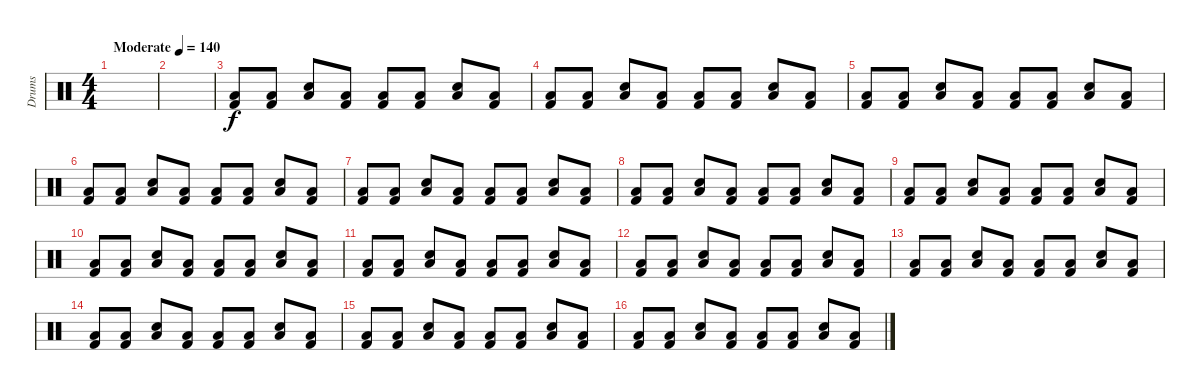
\track ("Drums" "Drums") {instrument percussion}
\staff {score}
\articulation defaults
\ts (4 4)
\tempo (140 "Moderate")
\clef neutral
\ks c
|
|
("Low Floor Tom (hit)" "Kick (hit) 2").8 ("Low Floor Tom (hit)" "Kick (hit) 2").8 ("Low Floor Tom (hit)" "Snare (hit) 2").8 ("Low Floor Tom (hit)" "Kick (hit) 2").8 ("Low Floor Tom (hit)" "Kick (hit) 2").8 ("Low Floor Tom (hit)" "Kick (hit) 2").8 ("Low Floor Tom (hit)" "Snare (hit) 2").8 ("Low Floor Tom (hit)" "Kick (hit) 2").8 |
("Low Floor Tom (hit)" "Kick (hit) 2").8 ("Low Floor Tom (hit)" "Kick (hit) 2").8 ("Low Floor Tom (hit)" "Snare (hit) 2").8 ("Low Floor Tom (hit)" "Kick (hit) 2").8 ("Low Floor Tom (hit)" "Kick (hit) 2").8 ("Low Floor Tom (hit)" "Kick (hit) 2").8 ("Low Floor Tom (hit)" "Snare (hit) 2").8 ("Low Floor Tom (hit)" "Kick (hit) 2").8 |
("Low Floor Tom (hit)" "Kick (hit) 2").8 ("Low Floor Tom (hit)" "Kick (hit) 2").8 ("Low Floor Tom (hit)" "Snare (hit) 2").8 ("Low Floor Tom (hit)" "Kick (hit) 2").8 ("Low Floor Tom (hit)" "Kick (hit) 2").8 ("Low Floor Tom (hit)" "Kick (hit) 2").8 ("Low Floor Tom (hit)" "Snare (hit) 2").8 ("Low Floor Tom (hit)" "Kick (hit) 2").8 |
("Low Floor Tom (hit)" "Kick (hit) 2").8 ("Low Floor Tom (hit)" "Kick (hit) 2").8 ("Low Floor Tom (hit)" "Snare (hit) 2").8 ("Low Floor Tom (hit)" "Kick (hit) 2").8 ("Low Floor Tom (hit)" "Kick (hit) 2").8 ("Low Floor Tom (hit)" "Kick (hit) 2").8 ("Low Floor Tom (hit)" "Snare (hit) 2").8 ("Low Floor Tom (hit)" "Kick (hit) 2").8 |
("Low Floor Tom (hit)" "Kick (hit) 2").8 ("Low Floor Tom (hit)" "Kick (hit) 2").8 ("Low Floor Tom (hit)" "Snare (hit) 2").8 ("Low Floor Tom (hit)" "Kick (hit) 2").8 ("Low Floor Tom (hit)" "Kick (hit) 2").8 ("Low Floor Tom (hit)" "Kick (hit) 2").8 ("Low Floor Tom (hit)" "Snare (hit) 2").8 ("Low Floor Tom (hit)" "Kick (hit) 2").8 |
("Low Floor Tom (hit)" "Kick (hit) 2").8 ("Low Floor Tom (hit)" "Kick (hit) 2").8 ("Low Floor Tom (hit)" "Snare (hit) 2").8 ("Low Floor Tom (hit)" "Kick (hit) 2").8 ("Low Floor Tom (hit)" "Kick (hit) 2").8 ("Low Floor Tom (hit)" "Kick (hit) 2").8 ("Low Floor Tom (hit)" "Snare (hit) 2").8 ("Low Floor Tom (hit)" "Kick (hit) 2").8 |
("Low Floor Tom (hit)" "Kick (hit) 2").8 ("Low Floor Tom (hit)" "Kick (hit) 2").8 ("Low Floor Tom (hit)" "Snare (hit) 2").8 ("Low Floor Tom (hit)" "Kick (hit) 2").8 ("Low Floor Tom (hit)" "Kick (hit) 2").8 ("Low Floor Tom (hit)" "Kick (hit) 2").8 ("Low Floor Tom (hit)" "Snare (hit) 2").8 ("Low Floor Tom (hit)" "Kick (hit) 2").8 |
("Low Floor Tom (hit)" "Kick (hit) 2").8 ("Low Floor Tom (hit)" "Kick (hit) 2").8 ("Low Floor Tom (hit)" "Snare (hit) 2").8 ("Low Floor Tom (hit)" "Kick (hit) 2").8 ("Low Floor Tom (hit)" "Kick (hit) 2").8 ("Low Floor Tom (hit)" "Kick (hit) 2").8 ("Low Floor Tom (hit)" "Snare (hit) 2").8 ("Low Floor Tom (hit)" "Kick (hit) 2").8 |
("Low Floor Tom (hit)" "Kick (hit) 2").8 ("Low Floor Tom (hit)" "Kick (hit) 2").8 ("Low Floor Tom (hit)" "Snare (hit) 2").8 ("Low Floor Tom (hit)" "Kick (hit) 2").8 ("Low Floor Tom (hit)" "Kick (hit) 2").8 ("Low Floor Tom (hit)" "Kick (hit) 2").8 ("Low Floor Tom (hit)" "Snare (hit) 2").8 ("Low Floor Tom (hit)" "Kick (hit) 2").8 |
("Low Floor Tom (hit)" "Kick (hit) 2").8 ("Low Floor Tom (hit)" "Kick (hit) 2").8 ("Low Floor Tom (hit)" "Snare (hit) 2").8 ("Low Floor Tom (hit)" "Kick (hit) 2").8 ("Low Floor Tom (hit)" "Kick (hit) 2").8 ("Low Floor Tom (hit)" "Kick (hit) 2").8 ("Low Floor Tom (hit)" "Snare (hit) 2").8 ("Low Floor Tom (hit)" "Kick (hit) 2").8 |
("Low Floor Tom (hit)" "Kick (hit) 2").8 ("Low Floor Tom (hit)" "Kick (hit) 2").8 ("Low Floor Tom (hit)" "Snare (hit) 2").8 ("Low Floor Tom (hit)" "Kick (hit) 2").8 ("Low Floor Tom (hit)" "Kick (hit) 2").8 ("Low Floor Tom (hit)" "Kick (hit) 2").8 ("Low Floor Tom (hit)" "Snare (hit) 2").8 ("Low Floor Tom (hit)" "Kick (hit) 2").8 |
("Low Floor Tom (hit)" "Kick (hit) 2").8 ("Low Floor Tom (hit)" "Kick (hit) 2").8 ("Low Floor Tom (hit)" "Snare (hit) 2").8 ("Low Floor Tom (hit)" "Kick (hit) 2").8 ("Low Floor Tom (hit)" "Kick (hit) 2").8 ("Low Floor Tom (hit)" "Kick (hit) 2").8 ("Low Floor Tom (hit)" "Snare (hit) 2").8 ("Low Floor Tom (hit)" "Kick (hit) 2").8 |
("Low Floor Tom (hit)" "Kick (hit) 2").8 ("Low Floor Tom (hit)" "Kick (hit) 2").8 ("Low Floor Tom (hit)" "Snare (hit) 2").8 ("Low Floor Tom (hit)" "Kick (hit) 2").8 ("Low Floor Tom (hit)" "Kick (hit) 2").8 ("Low Floor Tom (hit)" "Kick (hit) 2").8 ("Low Floor Tom (hit)" "Snare (hit) 2").8 ("Low Floor Tom (hit)" "Kick (hit) 2").8 |
("Low Floor Tom (hit)" "Kick (hit) 2").8 ("Low Floor Tom (hit)" "Kick (hit) 2").8 ("Low Floor Tom (hit)" "Snare (hit) 2").8 ("Low Floor Tom (hit)" "Kick (hit) 2").8 ("Low Floor Tom (hit)" "Kick (hit) 2").8 ("Low Floor Tom (hit)" "Kick (hit) 2").8 ("Low Floor Tom (hit)" "Snare (hit) 2").8 ("Low Floor Tom (hit)" "Kick (hit) 2").8
